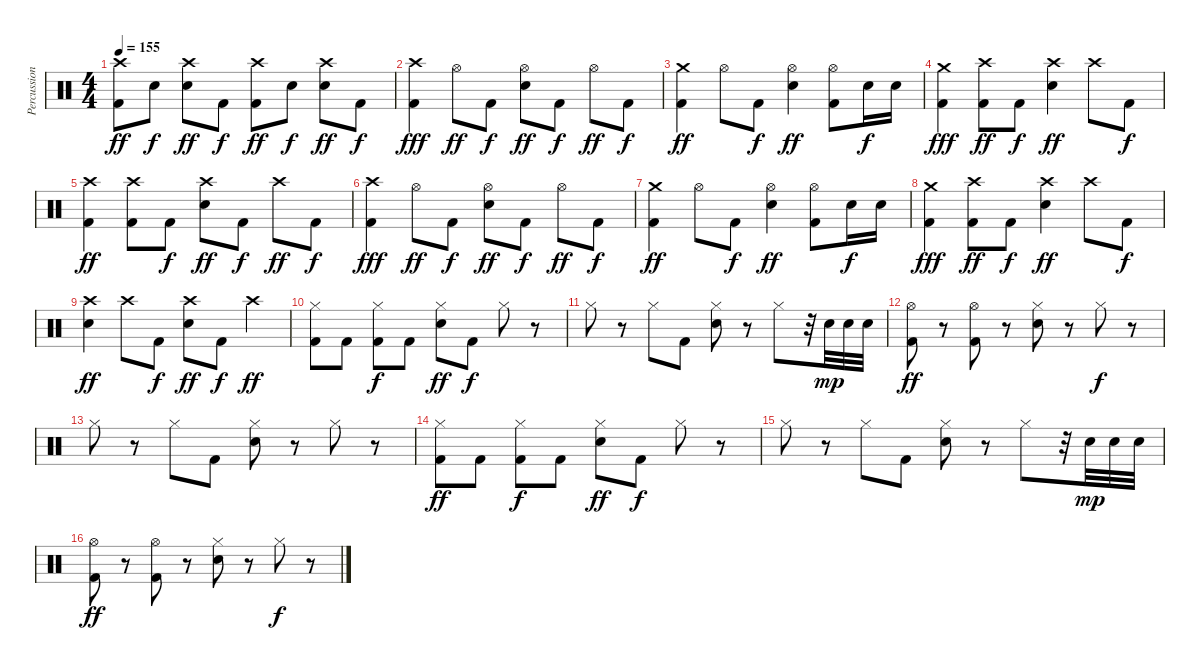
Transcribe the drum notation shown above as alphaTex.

\track ("Percussions" "Percussion") {instrument percussion}
\staff {score}
\articulation defaults
\ts (4 4)
\tempo 155
\clef neutral
\ks c
("Crash high (hit)" "Kick (hit) 2").8{dy ff} "Electric Snare (hit)".8{dy f} ("Crash high (hit)" "Electric Snare (hit)").8{dy ff} "Kick (hit) 2".8{dy f} ("Crash high (hit)" "Kick (hit) 2").8{dy ff} "Electric Snare (hit)".8{dy f} ("Crash high (hit)" "Electric Snare (hit)").8{dy ff} "Kick (hit) 2".8{dy f} |
("Crash high (hit)" "Kick (hit) 2").4{dy fff} "Hi-Hat (open)".8{dy ff} "Kick (hit) 2".8{dy f} ("Hi-Hat (open)" "Electric Snare (hit)").8{dy ff} "Kick (hit) 2".8{dy f} "Hi-Hat (open)".8{dy ff} "Kick (hit) 2".8{dy f} |
("Crash medium (hit)" "Kick (hit) 2").4{dy ff} "Hi-Hat (open)".8 "Kick (hit) 2".8{dy f} ("Hi-Hat (open)" "Electric Snare (hit)").4{dy ff} ("Hi-Hat (open)" "Kick (hit) 2").8 "Electric Snare (hit)".16{dy f} "Electric Snare (hit)".16 |
("Crash medium (hit)" "Kick (hit) 2").4{dy fff} ("Crash high (hit)" "Kick (hit) 2").8{dy ff} "Kick (hit) 2".8{dy f} ("Crash high (hit)" "Electric Snare (hit)").4{dy ff} "Crash high (hit)".8 "Kick (hit) 2".8{dy f} |
("Crash high (hit)" "Kick (hit) 2").4{dy ff} ("Crash high (hit)" "Kick (hit) 2").8 "Kick (hit) 2".8{dy f} ("Crash high (hit)" "Electric Snare (hit)").8{dy ff} "Kick (hit) 2".8{dy f} "Crash high (hit)".8{dy ff} "Kick (hit) 2".8{dy f} |
("Crash high (hit)" "Kick (hit) 2").4{dy fff} "Hi-Hat (open)".8{dy ff} "Kick (hit) 2".8{dy f} ("Hi-Hat (open)" "Electric Snare (hit)").8{dy ff} "Kick (hit) 2".8{dy f} "Hi-Hat (open)".8{dy ff} "Kick (hit) 2".8{dy f} |
("Crash medium (hit)" "Kick (hit) 2").4{dy ff} "Hi-Hat (open)".8 "Kick (hit) 2".8{dy f} ("Hi-Hat (open)" "Electric Snare (hit)").4{dy ff} ("Hi-Hat (open)" "Kick (hit) 2").8 "Electric Snare (hit)".16{dy f} "Electric Snare (hit)".16 |
("Crash medium (hit)" "Kick (hit) 2").4{dy fff} ("Crash high (hit)" "Kick (hit) 2").8{dy ff} "Kick (hit) 2".8{dy f} ("Crash high (hit)" "Electric Snare (hit)").4{dy ff} "Crash high (hit)".8 "Kick (hit) 2".8{dy f} |
("Crash high (hit)" "Electric Snare (hit)").4{dy ff} "Crash high (hit)".8 "Kick (hit) 2".8{dy f} ("Crash high (hit)" "Electric Snare (hit)").8{dy ff} "Kick (hit) 2".8{dy f} "Crash high (hit)".4{dy ff} |
("Hi-Hat (closed)" "Kick (hit) 2").8 "Kick (hit) 2".8 ("Hi-Hat (closed)" "Kick (hit) 2").8{dy f} "Kick (hit) 2".8 ("Hi-Hat (closed)" "Electric Snare (hit)").8{dy ff} "Kick (hit) 2".8{dy f} "Hi-Hat (closed)".8 r.8 |
"Hi-Hat (closed)".8 r.8 "Hi-Hat (closed)".8 "Kick (hit) 2".8 ("Hi-Hat (closed)" "Electric Snare (hit)").8 r.8 "Hi-Hat (closed)".8 r.32 "Electric Snare (hit)".32{dy mp} "Electric Snare (hit)".32 "Electric Snare (hit)".32 |
("Hi-Hat (open)" "Kick (hit) 2").8{dy ff} r.8 ("Hi-Hat (open)" "Kick (hit) 2").8 r.8 ("Hi-Hat (closed)" "Electric Snare (hit)").8 r.8 "Hi-Hat (closed)".8{dy f} r.8 |
"Hi-Hat (closed)".8 r.8 "Hi-Hat (closed)".8 "Kick (hit) 2".8 ("Hi-Hat (closed)" "Electric Snare (hit)").8 r.8 "Hi-Hat (closed)".8 r.8 |
("Hi-Hat (closed)" "Kick (hit) 2").8{dy ff} "Kick (hit) 2".8 ("Hi-Hat (closed)" "Kick (hit) 2").8{dy f} "Kick (hit) 2".8 ("Hi-Hat (closed)" "Electric Snare (hit)").8{dy ff} "Kick (hit) 2".8{dy f} "Hi-Hat (closed)".8 r.8 |
"Hi-Hat (closed)".8 r.8 "Hi-Hat (closed)".8 "Kick (hit) 2".8 ("Hi-Hat (closed)" "Electric Snare (hit)").8 r.8 "Hi-Hat (closed)".8 r.32 "Electric Snare (hit)".32{dy mp} "Electric Snare (hit)".32 "Electric Snare (hit)".32 |
("Hi-Hat (open)" "Kick (hit) 2").8{dy ff} r.8 ("Hi-Hat (open)" "Kick (hit) 2").8 r.8 ("Hi-Hat (closed)" "Electric Snare (hit)").8 r.8 "Hi-Hat (closed)".8{dy f} r.8
